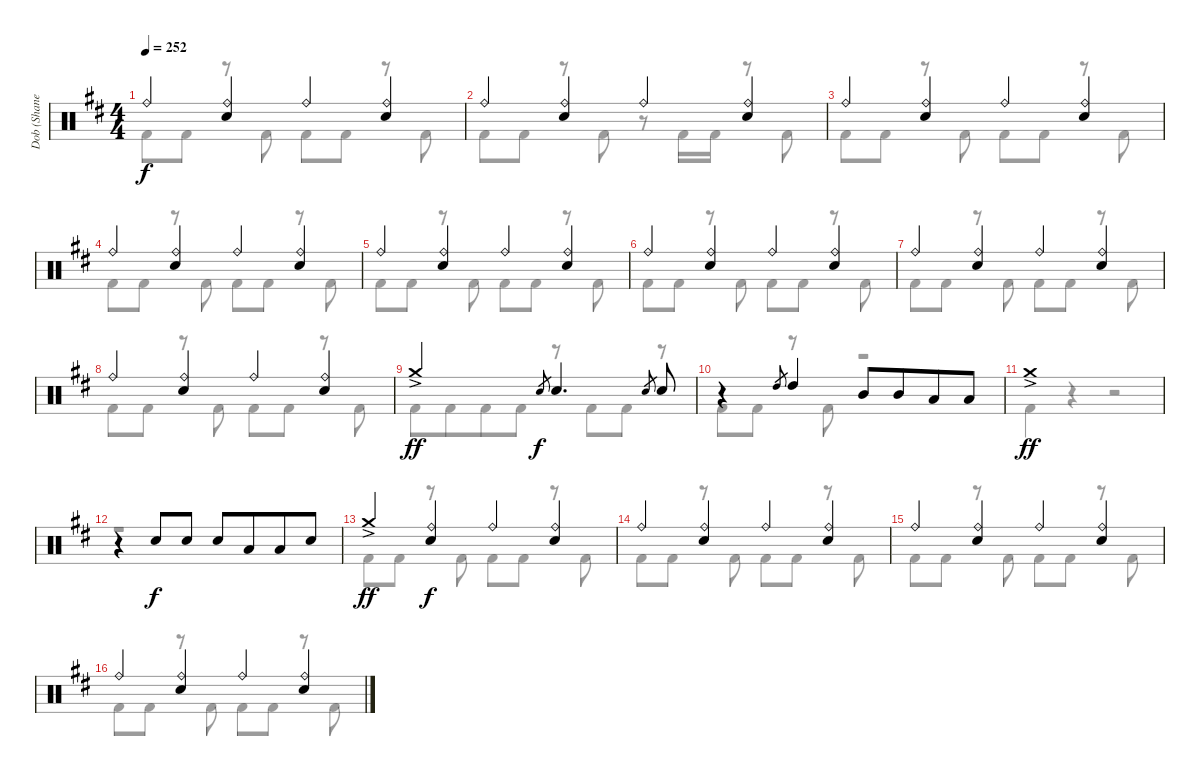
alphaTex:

\track ("Dob (Shane Gaalaas)" "Dob (Shane") {instrument percussion}
\staff {score}
\articulation defaults
\voice
\ts (4 4)
\tempo 252
\clef neutral
\ks d "Ride (bell)".4{dy f}
("Ride (bell)" "Electric Snare (hit)").4 "Ride (bell)".4 ("Ride (bell)" "Electric Snare (hit)").4 |
"Ride (bell)".4 ("Ride (bell)" "Electric Snare (hit)").4 "Ride (bell)".4 ("Ride (bell)" "Electric Snare (hit)").4 |
"Ride (bell)".4 ("Ride (bell)" "Electric Snare (hit)").4 "Ride (bell)".4 ("Ride (bell)" "Electric Snare (hit)").4 |
"Ride (bell)".4 ("Ride (bell)" "Electric Snare (hit)").4 "Ride (bell)".4 ("Ride (bell)" "Electric Snare (hit)").4 |
"Ride (bell)".4 ("Ride (bell)" "Electric Snare (hit)").4 "Ride (bell)".4 ("Ride (bell)" "Electric Snare (hit)").4 |
"Ride (bell)".4 ("Ride (bell)" "Electric Snare (hit)").4 "Ride (bell)".4 ("Ride (bell)" "Electric Snare (hit)").4 |
"Ride (bell)".4 ("Ride (bell)" "Electric Snare (hit)").4 "Ride (bell)".4 ("Ride (bell)" "Electric Snare (hit)").4 |
"Ride (bell)".4 ("Ride (bell)" "Electric Snare (hit)").4 "Ride (bell)".4 ("Ride (bell)" "Electric Snare (hit)").4 |
"Crash medium (hit)"{ac}.2{dy ff} "Electric Snare (hit)".8{gr dy f} "Electric Snare (hit)".4{d} "Electric Snare (hit)".8{gr} "Electric Snare (hit)".8 |
r.4 "High Tom (hit)".8{gr} "High Tom (hit)".4 "Mid Tom (hit)".8 "Mid Tom (hit)".8{beam merge} "Low Tom (hit)".8 "Low Tom (hit)".8 |
"Crash medium (hit)"{ac}.1{dy ff} |
r.4 "Electric Snare (hit)".8{dy f} "Electric Snare (hit)".8 "Electric Snare (hit)".8 "Low Tom (hit)".8{beam merge} "Low Tom (hit)".8 "Electric Snare (hit)".8 |
"Crash medium (hit)"{ac}.4{dy ff} ("Ride (bell)" "Electric Snare (hit)").4{dy f} "Ride (bell)".4 ("Ride (bell)" "Electric Snare (hit)").4 |
"Ride (bell)".4 ("Ride (bell)" "Electric Snare (hit)").4 "Ride (bell)".4 ("Ride (bell)" "Electric Snare (hit)").4 |
"Ride (bell)".4 ("Ride (bell)" "Electric Snare (hit)").4 "Ride (bell)".4 ("Ride (bell)" "Electric Snare (hit)").4 |
"Ride (bell)".4 ("Ride (bell)" "Electric Snare (hit)").4 "Ride (bell)".4 ("Ride (bell)" "Electric Snare (hit)").4
\voice
\clef neutral
\ottava regular
\simile none
\ks d "Kick (hit) 2".8{dy f} "Kick (hit) 2".8
r.8 "Kick (hit) 2".8 "Kick (hit) 2".8 "Kick (hit) 2".8 r.8 "Kick (hit) 2".8 |
"Kick (hit) 2".8 "Kick (hit) 2".8 r.8 "Kick (hit) 2".8 r.8 "Kick (hit) 2".16 "Kick (hit) 2".16 r.8 "Kick (hit) 2".8 |
"Kick (hit) 2".8 "Kick (hit) 2".8 r.8 "Kick (hit) 2".8 "Kick (hit) 2".8 "Kick (hit) 2".8 r.8 "Kick (hit) 2".8 |
"Kick (hit) 2".8 "Kick (hit) 2".8 r.8 "Kick (hit) 2".8 "Kick (hit) 2".8 "Kick (hit) 2".8 r.8 "Kick (hit) 2".8 |
"Kick (hit) 2".8 "Kick (hit) 2".8 r.8 "Kick (hit) 2".8 "Kick (hit) 2".8 "Kick (hit) 2".8 r.8 "Kick (hit) 2".8 |
"Kick (hit) 2".8 "Kick (hit) 2".8 r.8 "Kick (hit) 2".8 "Kick (hit) 2".8 "Kick (hit) 2".8 r.8 "Kick (hit) 2".8 |
"Kick (hit) 2".8 "Kick (hit) 2".8 r.8 "Kick (hit) 2".8 "Kick (hit) 2".8 "Kick (hit) 2".8 r.8 "Kick (hit) 2".8 |
"Kick (hit) 2".8 "Kick (hit) 2".8 r.8 "Kick (hit) 2".8 "Kick (hit) 2".8 "Kick (hit) 2".8 r.8 "Kick (hit) 2".8 |
"Kick (hit) 2".8 "Kick (hit) 2".8{beam merge} "Kick (hit) 2".8 "Kick (hit) 2".8 r.8 "Kick (hit) 2".8{beam merge} "Kick (hit) 2".8 r.8 |
"Kick (hit) 2".8 "Kick (hit) 2".8 r.8 "Kick (hit) 2".8 r.2 |
"Kick (hit) 2".4 r.4 r.2 |
r.1 |
"Kick (hit) 2".8 "Kick (hit) 2".8 r.8 "Kick (hit) 2".8 "Kick (hit) 2".8 "Kick (hit) 2".8 r.8 "Kick (hit) 2".8 |
"Kick (hit) 2".8 "Kick (hit) 2".8 r.8 "Kick (hit) 2".8 "Kick (hit) 2".8 "Kick (hit) 2".8 r.8 "Kick (hit) 2".8 |
"Kick (hit) 2".8 "Kick (hit) 2".8 r.8 "Kick (hit) 2".8 "Kick (hit) 2".8 "Kick (hit) 2".8 r.8 "Kick (hit) 2".8 |
"Kick (hit) 2".8 "Kick (hit) 2".8 r.8 "Kick (hit) 2".8 "Kick (hit) 2".8 "Kick (hit) 2".8 r.8 "Kick (hit) 2".8
